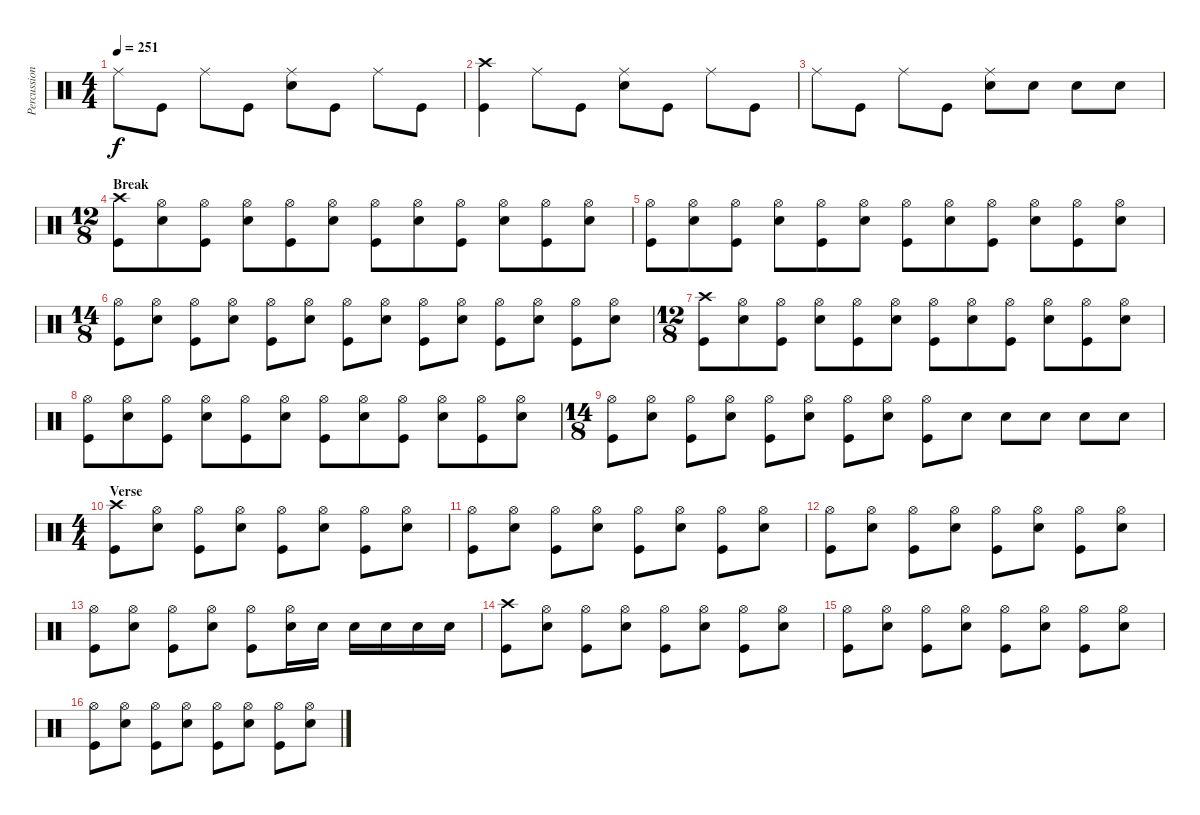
\track ("Percussion" "Percussion") {instrument percussion}
\staff {score}
\articulation defaults
\ts (4 4)
\tempo 251
\clef neutral
\ks c "Ride (middle)".8{dy f} "Kick (hit)".8 "Ride (middle)".8 "Kick (hit)".8
("Ride (middle)" "Electric Snare (hit)").8 "Kick (hit)".8 "Ride (middle)".8 "Kick (hit)".8 |
("Crash high (hit)" "Kick (hit)").4 "Ride (middle)".8 "Kick (hit)".8 ("Ride (middle)" "Electric Snare (hit)").8 "Kick (hit)".8 "Ride (middle)".8 "Kick (hit)".8 |
"Ride (middle)".8 "Kick (hit)".8 "Ride (middle)".8 "Kick (hit)".8 ("Ride (middle)" "Electric Snare (hit)").8 "Electric Snare (hit)".8 "Electric Snare (hit)".8 "Electric Snare (hit)".8 |
\ts (12 8)
\section ("" "Break")
("Crash high (hit)" "Kick (hit)").8 ("Hi-Hat (open)" "Electric Snare (hit)").8 ("Hi-Hat (open)" "Kick (hit)").8 ("Hi-Hat (open)" "Electric Snare (hit)").8 ("Hi-Hat (open)" "Kick (hit)").8 ("Hi-Hat (open)" "Electric Snare (hit)").8 ("Hi-Hat (open)" "Kick (hit)").8 ("Hi-Hat (open)" "Electric Snare (hit)").8 ("Hi-Hat (open)" "Kick (hit)").8 ("Hi-Hat (open)" "Electric Snare (hit)").8 ("Hi-Hat (open)" "Kick (hit)").8 ("Hi-Hat (open)" "Electric Snare (hit)").8 |
("Hi-Hat (open)" "Kick (hit)").8 ("Hi-Hat (open)" "Electric Snare (hit)").8 ("Hi-Hat (open)" "Kick (hit)").8 ("Hi-Hat (open)" "Electric Snare (hit)").8 ("Hi-Hat (open)" "Kick (hit)").8 ("Hi-Hat (open)" "Electric Snare (hit)").8 ("Hi-Hat (open)" "Kick (hit)").8 ("Hi-Hat (open)" "Electric Snare (hit)").8 ("Hi-Hat (open)" "Kick (hit)").8 ("Hi-Hat (open)" "Electric Snare (hit)").8 ("Hi-Hat (open)" "Kick (hit)").8 ("Hi-Hat (open)" "Electric Snare (hit)").8 |
\ts (14 8)
("Hi-Hat (open)" "Kick (hit)").8 ("Hi-Hat (open)" "Electric Snare (hit)").8 ("Hi-Hat (open)" "Kick (hit)").8 ("Hi-Hat (open)" "Electric Snare (hit)").8 ("Hi-Hat (open)" "Kick (hit)").8 ("Hi-Hat (open)" "Electric Snare (hit)").8 ("Hi-Hat (open)" "Kick (hit)").8 ("Hi-Hat (open)" "Electric Snare (hit)").8 ("Hi-Hat (open)" "Kick (hit)").8 ("Hi-Hat (open)" "Electric Snare (hit)").8 ("Hi-Hat (open)" "Kick (hit)").8 ("Hi-Hat (open)" "Electric Snare (hit)").8 ("Hi-Hat (open)" "Kick (hit)").8 ("Hi-Hat (open)" "Electric Snare (hit)").8 |
\ts (12 8)
("Crash high (hit)" "Kick (hit)").8 ("Hi-Hat (open)" "Electric Snare (hit)").8 ("Hi-Hat (open)" "Kick (hit)").8 ("Hi-Hat (open)" "Electric Snare (hit)").8 ("Hi-Hat (open)" "Kick (hit)").8 ("Hi-Hat (open)" "Electric Snare (hit)").8 ("Hi-Hat (open)" "Kick (hit)").8 ("Hi-Hat (open)" "Electric Snare (hit)").8 ("Hi-Hat (open)" "Kick (hit)").8 ("Hi-Hat (open)" "Electric Snare (hit)").8 ("Hi-Hat (open)" "Kick (hit)").8 ("Hi-Hat (open)" "Electric Snare (hit)").8 |
("Hi-Hat (open)" "Kick (hit)").8 ("Hi-Hat (open)" "Electric Snare (hit)").8 ("Hi-Hat (open)" "Kick (hit)").8 ("Hi-Hat (open)" "Electric Snare (hit)").8 ("Hi-Hat (open)" "Kick (hit)").8 ("Hi-Hat (open)" "Electric Snare (hit)").8 ("Hi-Hat (open)" "Kick (hit)").8 ("Hi-Hat (open)" "Electric Snare (hit)").8 ("Hi-Hat (open)" "Kick (hit)").8 ("Hi-Hat (open)" "Electric Snare (hit)").8 ("Hi-Hat (open)" "Kick (hit)").8 ("Hi-Hat (open)" "Electric Snare (hit)").8 |
\ts (14 8)
("Hi-Hat (open)" "Kick (hit)").8 ("Hi-Hat (open)" "Electric Snare (hit)").8 ("Hi-Hat (open)" "Kick (hit)").8 ("Hi-Hat (open)" "Electric Snare (hit)").8 ("Hi-Hat (open)" "Kick (hit)").8 ("Hi-Hat (open)" "Electric Snare (hit)").8 ("Hi-Hat (open)" "Kick (hit)").8 ("Hi-Hat (open)" "Electric Snare (hit)").8 ("Hi-Hat (open)" "Kick (hit)").8 "Electric Snare (hit)".8 "Electric Snare (hit)".8 "Electric Snare (hit)".8 "Electric Snare (hit)".8 "Electric Snare (hit)".8 |
\ts (4 4)
\section ("" "Verse")
("Crash high (hit)" "Kick (hit)").8 ("Hi-Hat (open)" "Electric Snare (hit)").8 ("Hi-Hat (open)" "Kick (hit)").8 ("Hi-Hat (open)" "Electric Snare (hit)").8 ("Hi-Hat (open)" "Kick (hit)").8 ("Hi-Hat (open)" "Electric Snare (hit)").8 ("Hi-Hat (open)" "Kick (hit)").8 ("Hi-Hat (open)" "Electric Snare (hit)").8 |
("Hi-Hat (open)" "Kick (hit)").8 ("Hi-Hat (open)" "Electric Snare (hit)").8 ("Hi-Hat (open)" "Kick (hit)").8 ("Hi-Hat (open)" "Electric Snare (hit)").8 ("Hi-Hat (open)" "Kick (hit)").8 ("Hi-Hat (open)" "Electric Snare (hit)").8 ("Hi-Hat (open)" "Kick (hit)").8 ("Hi-Hat (open)" "Electric Snare (hit)").8 |
("Hi-Hat (open)" "Kick (hit)").8 ("Hi-Hat (open)" "Electric Snare (hit)").8 ("Hi-Hat (open)" "Kick (hit)").8 ("Hi-Hat (open)" "Electric Snare (hit)").8 ("Hi-Hat (open)" "Kick (hit)").8 ("Hi-Hat (open)" "Electric Snare (hit)").8 ("Hi-Hat (open)" "Kick (hit)").8 ("Hi-Hat (open)" "Electric Snare (hit)").8 |
("Hi-Hat (open)" "Kick (hit)").8 ("Hi-Hat (open)" "Electric Snare (hit)").8 ("Hi-Hat (open)" "Kick (hit)").8 ("Hi-Hat (open)" "Electric Snare (hit)").8 ("Hi-Hat (open)" "Kick (hit)").8 ("Hi-Hat (open)" "Electric Snare (hit)").16 "Electric Snare (hit)".16 "Electric Snare (hit)".16 "Electric Snare (hit)".16 "Electric Snare (hit)".16 "Electric Snare (hit)".16 |
("Crash high (hit)" "Kick (hit)").8 ("Hi-Hat (open)" "Electric Snare (hit)").8 ("Hi-Hat (open)" "Kick (hit)").8 ("Hi-Hat (open)" "Electric Snare (hit)").8 ("Hi-Hat (open)" "Kick (hit)").8 ("Hi-Hat (open)" "Electric Snare (hit)").8 ("Hi-Hat (open)" "Kick (hit)").8 ("Hi-Hat (open)" "Electric Snare (hit)").8 |
("Hi-Hat (open)" "Kick (hit)").8 ("Hi-Hat (open)" "Electric Snare (hit)").8 ("Hi-Hat (open)" "Kick (hit)").8 ("Hi-Hat (open)" "Electric Snare (hit)").8 ("Hi-Hat (open)" "Kick (hit)").8 ("Hi-Hat (open)" "Electric Snare (hit)").8 ("Hi-Hat (open)" "Kick (hit)").8 ("Hi-Hat (open)" "Electric Snare (hit)").8 |
("Hi-Hat (open)" "Kick (hit)").8 ("Hi-Hat (open)" "Electric Snare (hit)").8 ("Hi-Hat (open)" "Kick (hit)").8 ("Hi-Hat (open)" "Electric Snare (hit)").8 ("Hi-Hat (open)" "Kick (hit)").8 ("Hi-Hat (open)" "Electric Snare (hit)").8 ("Hi-Hat (open)" "Kick (hit)").8 ("Hi-Hat (open)" "Electric Snare (hit)").8
